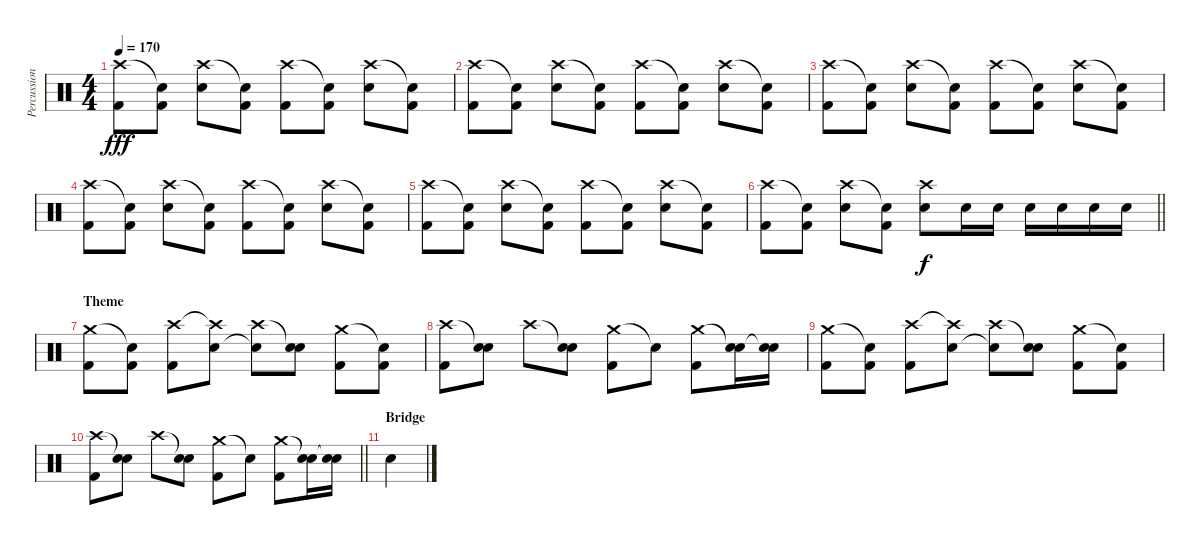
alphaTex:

\track ("Percussion" "Percussion") {instrument percussion}
\staff {score}
\articulation defaults
\ts (4 4)
\tempo 170
\clef neutral
\ks c
("Crash high (hit)" "Kick (hit) 2").8{dy fff} ("Snare (hit)"{t} "Kick (hit) 2").8 ("Crash high (hit)" "Electric Snare (hit)").8 ("Snare (hit)"{t} "Kick (hit) 2").8 ("Crash high (hit)" "Kick (hit) 2").8 ("Snare (hit)"{t} "Kick (hit) 2").8 ("Crash high (hit)" "Electric Snare (hit)").8 ("Snare (hit)"{t} "Kick (hit) 2").8 |
("Crash high (hit)" "Kick (hit) 2").8 ("Snare (hit)"{t} "Kick (hit) 2").8 ("Crash high (hit)" "Electric Snare (hit)").8 ("Snare (hit)"{t} "Kick (hit) 2").8 ("Crash high (hit)" "Kick (hit) 2").8 ("Snare (hit)"{t} "Kick (hit) 2").8 ("Crash high (hit)" "Electric Snare (hit)").8 ("Snare (hit)"{t} "Kick (hit) 2").8 |
("Crash high (hit)" "Kick (hit) 2").8 ("Snare (hit)"{t} "Kick (hit) 2").8 ("Crash high (hit)" "Electric Snare (hit)").8 ("Snare (hit)"{t} "Kick (hit) 2").8 ("Crash high (hit)" "Kick (hit) 2").8 ("Snare (hit)"{t} "Kick (hit) 2").8 ("Crash high (hit)" "Electric Snare (hit)").8 ("Snare (hit)"{t} "Kick (hit) 2").8 |
("Crash high (hit)" "Kick (hit) 2").8 ("Snare (hit)"{t} "Kick (hit) 2").8 ("Crash high (hit)" "Electric Snare (hit)").8 ("Snare (hit)"{t} "Kick (hit) 2").8 ("Crash high (hit)" "Kick (hit) 2").8 ("Snare (hit)"{t} "Kick (hit) 2").8 ("Crash high (hit)" "Electric Snare (hit)").8 ("Snare (hit)"{t} "Kick (hit) 2").8 |
("Crash high (hit)" "Kick (hit) 2").8 ("Snare (hit)"{t} "Kick (hit) 2").8 ("Crash high (hit)" "Electric Snare (hit)").8 ("Snare (hit)"{t} "Kick (hit) 2").8 ("Crash high (hit)" "Kick (hit) 2").8 ("Snare (hit)"{t} "Kick (hit) 2").8 ("Crash high (hit)" "Electric Snare (hit)").8 ("Snare (hit)"{t} "Kick (hit) 2").8 |
\barLineRight lightlight
("Crash high (hit)" "Kick (hit) 2").8 ("Snare (hit)"{t} "Kick (hit) 2").8 ("Crash high (hit)" "Electric Snare (hit)").8 ("Snare (hit)"{t} "Kick (hit) 2").8 ("Crash high (hit)" "Electric Snare (hit)").8{dy f} "Electric Snare (hit)".16 "Electric Snare (hit)".16 "Electric Snare (hit)".16 "Electric Snare (hit)".16 "Electric Snare (hit)".16 "Electric Snare (hit)".16 |
\section ("" "Theme")
("Crash medium (hit)" "Kick (hit) 2").8 ("Snare (hit)"{t} "Kick (hit) 2").8 ("Crash high (hit)" "Kick (hit) 2").8 ("Crash high (hit)"{t} "Electric Snare (hit)").8 ("Crash high (hit)" "Snare (hit)"{t}).8 ("Snare (hit)"{t} "Electric Snare (hit)").8 ("Crash medium (hit)" "Kick (hit) 2").8 ("Snare (hit)"{t} "Kick (hit) 2").8 |
("Crash high (hit)" "Kick (hit) 2").8 ("Snare (hit)"{t} "Electric Snare (hit)").8 "Crash high (hit)".8 ("Snare (hit)"{t} "Electric Snare (hit)").8 ("Crash medium (hit)" "Kick (hit) 2").8 "Snare (hit)"{t}.8 ("Crash medium (hit)" "Kick (hit) 2").8 ("Snare (hit)"{t} "Electric Snare (hit)").16 ("Snare (hit)"{t} "Electric Snare (hit)").16 |
("Crash medium (hit)" "Kick (hit) 2").8 ("Snare (hit)"{t} "Kick (hit) 2").8 ("Crash high (hit)" "Kick (hit) 2").8 ("Crash high (hit)"{t} "Electric Snare (hit)").8 ("Crash high (hit)" "Snare (hit)"{t}).8 ("Snare (hit)"{t} "Electric Snare (hit)").8 ("Crash medium (hit)" "Kick (hit) 2").8 ("Snare (hit)"{t} "Kick (hit) 2").8 |
\barLineRight lightlight
("Crash high (hit)" "Kick (hit) 2").8 ("Snare (hit)"{t} "Electric Snare (hit)").8 "Crash high (hit)".8 ("Snare (hit)"{t} "Electric Snare (hit)").8 ("Crash medium (hit)" "Kick (hit) 2").8 "Snare (hit)"{t}.8 ("Crash medium (hit)" "Kick (hit) 2").8 ("Snare (hit)"{t} "Electric Snare (hit)").16 ("Snare (hit)"{t} "Electric Snare (hit)").16 |
\section ("" "Bridge")
"Electric Snare (hit)".4
